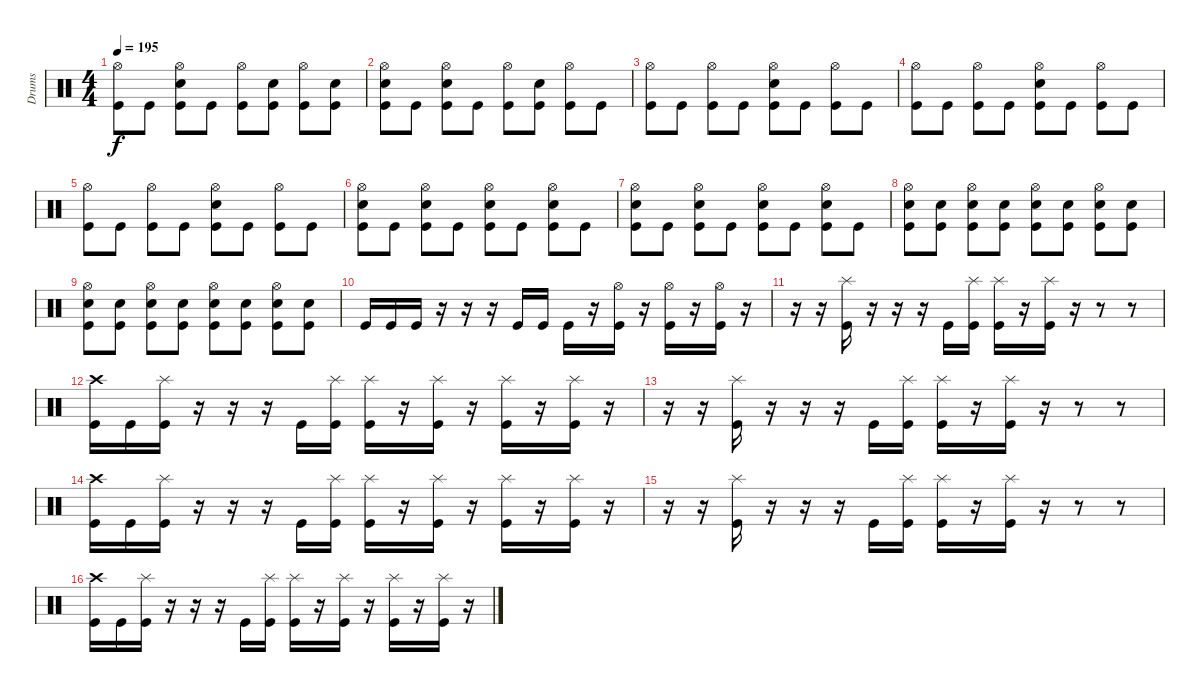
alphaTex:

\track ("Drums" "Drums") {instrument percussion}
\staff {score}
\articulation defaults
\ts (4 4)
\tempo 195
\clef neutral
\ks c
("Hi-Hat (open)" "Kick (hit)").8{dy f} "Kick (hit)".8 ("Hi-Hat (open)" "Electric Snare (hit)" "Kick (hit)").8 "Kick (hit)".8 ("Hi-Hat (open)" "Kick (hit)").8 ("Electric Snare (hit)" "Kick (hit)").8 ("Hi-Hat (open)" "Kick (hit)").8 ("Electric Snare (hit)" "Kick (hit)").8 |
("Hi-Hat (open)" "Electric Snare (hit)" "Kick (hit)").8 "Kick (hit)".8 ("Hi-Hat (open)" "Electric Snare (hit)" "Kick (hit)").8 "Kick (hit)".8 ("Hi-Hat (open)" "Kick (hit)").8 ("Electric Snare (hit)" "Kick (hit)").8 ("Hi-Hat (open)" "Kick (hit)").8 "Kick (hit)".8 |
("Hi-Hat (open)" "Kick (hit)").8 "Kick (hit)".8 ("Hi-Hat (open)" "Kick (hit)").8 "Kick (hit)".8 ("Hi-Hat (open)" "Electric Snare (hit)" "Kick (hit)").8 "Kick (hit)".8 ("Hi-Hat (open)" "Kick (hit)").8 "Kick (hit)".8 |
("Hi-Hat (open)" "Kick (hit)").8 "Kick (hit)".8 ("Hi-Hat (open)" "Kick (hit)").8 "Kick (hit)".8 ("Hi-Hat (open)" "Electric Snare (hit)" "Kick (hit)").8 "Kick (hit)".8 ("Hi-Hat (open)" "Kick (hit)").8 "Kick (hit)".8 |
("Hi-Hat (open)" "Kick (hit)").8 "Kick (hit)".8 ("Hi-Hat (open)" "Kick (hit)").8 "Kick (hit)".8 ("Hi-Hat (open)" "Electric Snare (hit)" "Kick (hit)").8 "Kick (hit)".8 ("Hi-Hat (open)" "Kick (hit)").8 "Kick (hit)".8 |
("Hi-Hat (open)" "Electric Snare (hit)" "Kick (hit)").8 "Kick (hit)".8 ("Hi-Hat (open)" "Electric Snare (hit)" "Kick (hit)").8 "Kick (hit)".8 ("Hi-Hat (open)" "Electric Snare (hit)" "Kick (hit)").8 "Kick (hit)".8 ("Hi-Hat (open)" "Electric Snare (hit)" "Kick (hit)").8 "Kick (hit)".8 |
("Hi-Hat (open)" "Electric Snare (hit)" "Kick (hit)").8 "Kick (hit)".8 ("Hi-Hat (open)" "Electric Snare (hit)" "Kick (hit)").8 "Kick (hit)".8 ("Hi-Hat (open)" "Electric Snare (hit)" "Kick (hit)").8 "Kick (hit)".8 ("Hi-Hat (open)" "Electric Snare (hit)" "Kick (hit)").8 "Kick (hit)".8 |
("Hi-Hat (open)" "Electric Snare (hit)" "Kick (hit)").8 ("Electric Snare (hit)" "Kick (hit)").8 ("Hi-Hat (open)" "Electric Snare (hit)" "Kick (hit)").8 ("Electric Snare (hit)" "Kick (hit)").8 ("Hi-Hat (open)" "Electric Snare (hit)" "Kick (hit)").8 ("Electric Snare (hit)" "Kick (hit)").8 ("Hi-Hat (open)" "Electric Snare (hit)" "Kick (hit)").8 ("Electric Snare (hit)" "Kick (hit)").8 |
("Hi-Hat (open)" "Electric Snare (hit)" "Kick (hit)").8 ("Electric Snare (hit)" "Kick (hit)").8 ("Hi-Hat (open)" "Electric Snare (hit)" "Kick (hit)").8 ("Electric Snare (hit)" "Kick (hit)").8 ("Hi-Hat (open)" "Electric Snare (hit)" "Kick (hit)").8 ("Electric Snare (hit)" "Kick (hit)").8 ("Hi-Hat (open)" "Electric Snare (hit)" "Kick (hit)").8 ("Electric Snare (hit)" "Kick (hit)").8 |
"Kick (hit)".16 "Kick (hit)".16 "Kick (hit)".16 r.16 r.16 r.16 "Kick (hit)".16 "Kick (hit)".16 "Kick (hit)".16 r.16 ("Hi-Hat (open)" "Kick (hit)").16 r.16 ("Hi-Hat (open)" "Kick (hit)").16 r.16 ("Hi-Hat (open)" "Kick (hit)").16 r.16 |
r.16 r.16 ("Splash (hit)" "Kick (hit)").16 r.16 r.16 r.16 "Kick (hit)".16 ("Splash (hit)" "Kick (hit)").16 ("Splash (hit)" "Kick (hit)").16 r.16 ("Splash (hit)" "Kick (hit)").16 r.16 r.8 r.8 |
("Crash high (hit)" "Kick (hit)").16 "Kick (hit)".16 ("Splash (hit)" "Kick (hit)").16 r.16 r.16 r.16 "Kick (hit)".16 ("Splash (hit)" "Kick (hit)").16 ("Splash (hit)" "Kick (hit)").16 r.16 ("Splash (hit)" "Kick (hit)").16 r.16 ("Splash (hit)" "Kick (hit)").16 r.16 ("Splash (hit)" "Kick (hit)").16 r.16 |
r.16 r.16 ("Splash (hit)" "Kick (hit)").16 r.16 r.16 r.16 "Kick (hit)".16 ("Splash (hit)" "Kick (hit)").16 ("Splash (hit)" "Kick (hit)").16 r.16 ("Splash (hit)" "Kick (hit)").16 r.16 r.8 r.8 |
("Crash high (hit)" "Kick (hit)").16 "Kick (hit)".16 ("Splash (hit)" "Kick (hit)").16 r.16 r.16 r.16 "Kick (hit)".16 ("Splash (hit)" "Kick (hit)").16 ("Splash (hit)" "Kick (hit)").16 r.16 ("Splash (hit)" "Kick (hit)").16 r.16 ("Splash (hit)" "Kick (hit)").16 r.16 ("Splash (hit)" "Kick (hit)").16 r.16 |
r.16 r.16 ("Splash (hit)" "Kick (hit)").16 r.16 r.16 r.16 "Kick (hit)".16 ("Splash (hit)" "Kick (hit)").16 ("Splash (hit)" "Kick (hit)").16 r.16 ("Splash (hit)" "Kick (hit)").16 r.16 r.8 r.8 |
("Crash high (hit)" "Kick (hit)").16 "Kick (hit)".16 ("Splash (hit)" "Kick (hit)").16 r.16 r.16 r.16 "Kick (hit)".16 ("Splash (hit)" "Kick (hit)").16 ("Splash (hit)" "Kick (hit)").16 r.16 ("Splash (hit)" "Kick (hit)").16 r.16 ("Splash (hit)" "Kick (hit)").16 r.16 ("Splash (hit)" "Kick (hit)").16 r.16
